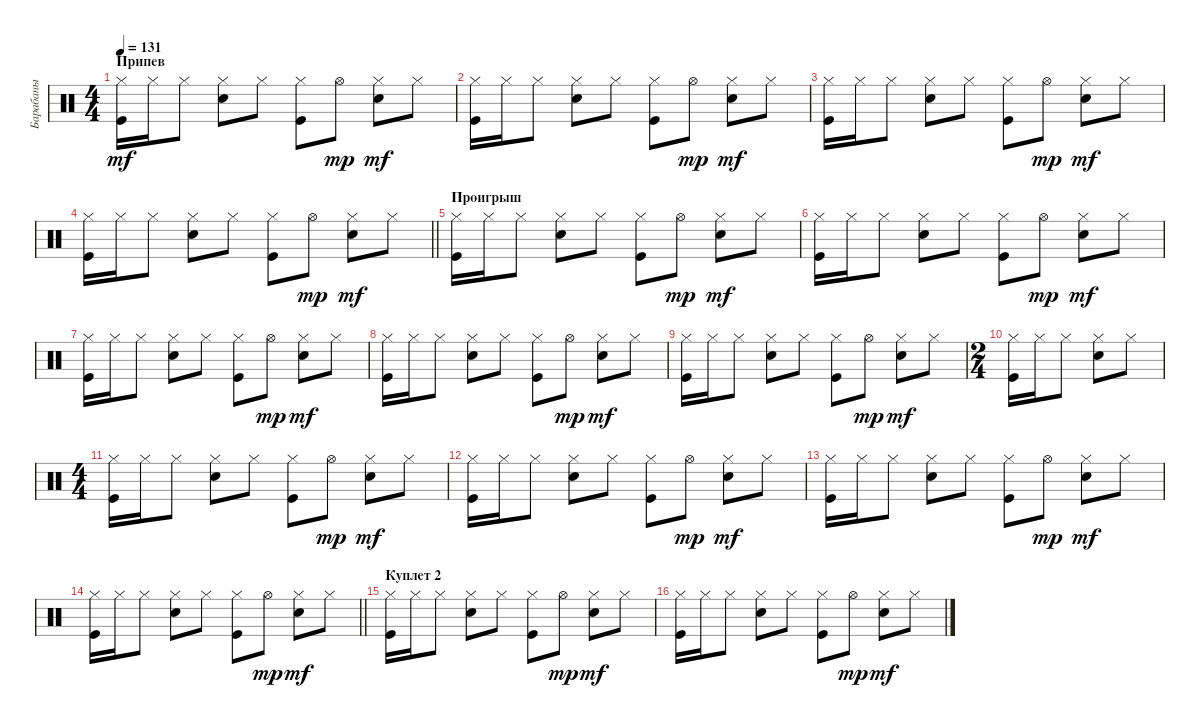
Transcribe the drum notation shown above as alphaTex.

\track ("Барабаны" "Барабаны") {instrument percussion}
\staff {score}
\articulation defaults
\ts (4 4)
\section ("" "Припев")
\tempo 131
\clef neutral
\ks c
("Kick (hit)" "Hi-Hat (closed)").16{dy mf} "Hi-Hat (closed)".16 "Hi-Hat (closed)".8 ("Snare (hit) 2" "Hi-Hat (closed)").8 "Hi-Hat (closed)".8 ("Kick (hit)" "Hi-Hat (closed)").8 "Hi-Hat (open)".8{dy mp} ("Snare (hit) 2" "Hi-Hat (closed)").8{dy mf} "Hi-Hat (closed)".8 |
("Kick (hit)" "Hi-Hat (closed)").16 "Hi-Hat (closed)".16 "Hi-Hat (closed)".8 ("Snare (hit) 2" "Hi-Hat (closed)").8 "Hi-Hat (closed)".8 ("Kick (hit)" "Hi-Hat (closed)").8 "Hi-Hat (open)".8{dy mp} ("Snare (hit) 2" "Hi-Hat (closed)").8{dy mf} "Hi-Hat (closed)".8 |
("Kick (hit)" "Hi-Hat (closed)").16 "Hi-Hat (closed)".16 "Hi-Hat (closed)".8 ("Snare (hit) 2" "Hi-Hat (closed)").8 "Hi-Hat (closed)".8 ("Kick (hit)" "Hi-Hat (closed)").8 "Hi-Hat (open)".8{dy mp} ("Snare (hit) 2" "Hi-Hat (closed)").8{dy mf} "Hi-Hat (closed)".8 |
\barLineRight lightlight
("Kick (hit)" "Hi-Hat (closed)").16 "Hi-Hat (closed)".16 "Hi-Hat (closed)".8 ("Snare (hit) 2" "Hi-Hat (closed)").8 "Hi-Hat (closed)".8 ("Kick (hit)" "Hi-Hat (closed)").8 "Hi-Hat (open)".8{dy mp} ("Snare (hit) 2" "Hi-Hat (closed)").8{dy mf} "Hi-Hat (closed)".8 |
\section ("" "Проигрыш")
("Kick (hit)" "Hi-Hat (closed)").16 "Hi-Hat (closed)".16 "Hi-Hat (closed)".8 ("Snare (hit) 2" "Hi-Hat (closed)").8 "Hi-Hat (closed)".8 ("Kick (hit)" "Hi-Hat (closed)").8 "Hi-Hat (open)".8{dy mp} ("Snare (hit) 2" "Hi-Hat (closed)").8{dy mf} "Hi-Hat (closed)".8 |
("Kick (hit)" "Hi-Hat (closed)").16 "Hi-Hat (closed)".16 "Hi-Hat (closed)".8 ("Snare (hit) 2" "Hi-Hat (closed)").8 "Hi-Hat (closed)".8 ("Kick (hit)" "Hi-Hat (closed)").8 "Hi-Hat (open)".8{dy mp} ("Snare (hit) 2" "Hi-Hat (closed)").8{dy mf} "Hi-Hat (closed)".8 |
("Kick (hit)" "Hi-Hat (closed)").16 "Hi-Hat (closed)".16 "Hi-Hat (closed)".8 ("Snare (hit) 2" "Hi-Hat (closed)").8 "Hi-Hat (closed)".8 ("Kick (hit)" "Hi-Hat (closed)").8 "Hi-Hat (open)".8{dy mp} ("Snare (hit) 2" "Hi-Hat (closed)").8{dy mf} "Hi-Hat (closed)".8 |
("Kick (hit)" "Hi-Hat (closed)").16 "Hi-Hat (closed)".16 "Hi-Hat (closed)".8 ("Snare (hit) 2" "Hi-Hat (closed)").8 "Hi-Hat (closed)".8 ("Kick (hit)" "Hi-Hat (closed)").8 "Hi-Hat (open)".8{dy mp} ("Snare (hit) 2" "Hi-Hat (closed)").8{dy mf} "Hi-Hat (closed)".8 |
("Kick (hit)" "Hi-Hat (closed)").16 "Hi-Hat (closed)".16 "Hi-Hat (closed)".8 ("Snare (hit) 2" "Hi-Hat (closed)").8 "Hi-Hat (closed)".8 ("Kick (hit)" "Hi-Hat (closed)").8 "Hi-Hat (open)".8{dy mp} ("Snare (hit) 2" "Hi-Hat (closed)").8{dy mf} "Hi-Hat (closed)".8 |
\ts (2 4)
("Kick (hit)" "Hi-Hat (closed)").16 "Hi-Hat (closed)".16 "Hi-Hat (closed)".8 ("Snare (hit) 2" "Hi-Hat (closed)").8 "Hi-Hat (closed)".8 |
\ts (4 4)
("Kick (hit)" "Hi-Hat (closed)").16 "Hi-Hat (closed)".16 "Hi-Hat (closed)".8 ("Snare (hit) 2" "Hi-Hat (closed)").8 "Hi-Hat (closed)".8 ("Kick (hit)" "Hi-Hat (closed)").8 "Hi-Hat (open)".8{dy mp} ("Snare (hit) 2" "Hi-Hat (closed)").8{dy mf} "Hi-Hat (closed)".8 |
("Kick (hit)" "Hi-Hat (closed)").16 "Hi-Hat (closed)".16 "Hi-Hat (closed)".8 ("Snare (hit) 2" "Hi-Hat (closed)").8 "Hi-Hat (closed)".8 ("Kick (hit)" "Hi-Hat (closed)").8 "Hi-Hat (open)".8{dy mp} ("Snare (hit) 2" "Hi-Hat (closed)").8{dy mf} "Hi-Hat (closed)".8 |
("Kick (hit)" "Hi-Hat (closed)").16 "Hi-Hat (closed)".16 "Hi-Hat (closed)".8 ("Snare (hit) 2" "Hi-Hat (closed)").8 "Hi-Hat (closed)".8 ("Kick (hit)" "Hi-Hat (closed)").8 "Hi-Hat (open)".8{dy mp} ("Snare (hit) 2" "Hi-Hat (closed)").8{dy mf} "Hi-Hat (closed)".8 |
\barLineRight lightlight
("Kick (hit)" "Hi-Hat (closed)").16 "Hi-Hat (closed)".16 "Hi-Hat (closed)".8 ("Snare (hit) 2" "Hi-Hat (closed)").8 "Hi-Hat (closed)".8 ("Kick (hit)" "Hi-Hat (closed)").8 "Hi-Hat (open)".8{dy mp} ("Snare (hit) 2" "Hi-Hat (closed)").8{dy mf} "Hi-Hat (closed)".8 |
\section ("" "Куплет 2")
("Kick (hit)" "Hi-Hat (closed)").16 "Hi-Hat (closed)".16 "Hi-Hat (closed)".8 ("Snare (hit) 2" "Hi-Hat (closed)").8 "Hi-Hat (closed)".8 ("Kick (hit)" "Hi-Hat (closed)").8 "Hi-Hat (open)".8{dy mp} ("Snare (hit) 2" "Hi-Hat (closed)").8{dy mf} "Hi-Hat (closed)".8 |
("Kick (hit)" "Hi-Hat (closed)").16 "Hi-Hat (closed)".16 "Hi-Hat (closed)".8 ("Snare (hit) 2" "Hi-Hat (closed)").8 "Hi-Hat (closed)".8 ("Kick (hit)" "Hi-Hat (closed)").8 "Hi-Hat (open)".8{dy mp} ("Snare (hit) 2" "Hi-Hat (closed)").8{dy mf} "Hi-Hat (closed)".8
